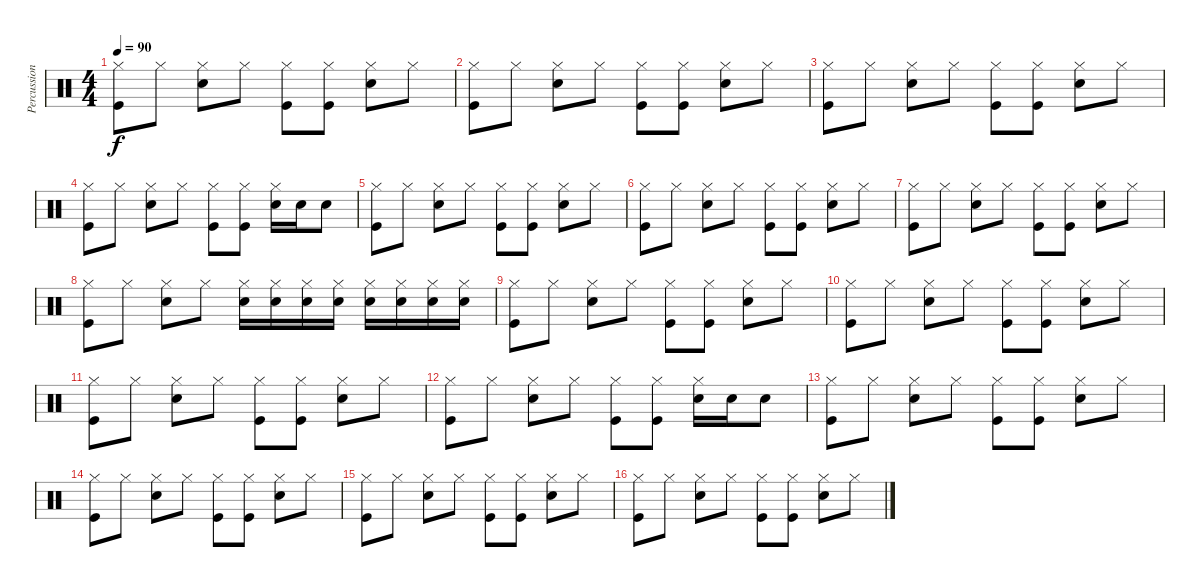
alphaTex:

\track ("Percussion" "Percussion") {instrument percussion}
\staff {score}
\articulation defaults
\ts (4 4)
\tempo 90
\clef neutral
\ks c
("Hi-Hat (closed)" "Kick (hit)").8{dy f} "Hi-Hat (closed)".8 ("Hi-Hat (closed)" "Snare (hit) 2").8 "Hi-Hat (closed)".8 ("Hi-Hat (closed)" "Kick (hit)").8 ("Hi-Hat (closed)" "Kick (hit)").8 ("Hi-Hat (closed)" "Snare (hit) 2").8 "Hi-Hat (closed)".8 |
("Hi-Hat (closed)" "Kick (hit)").8 "Hi-Hat (closed)".8 ("Hi-Hat (closed)" "Snare (hit) 2").8 "Hi-Hat (closed)".8 ("Hi-Hat (closed)" "Kick (hit)").8 ("Hi-Hat (closed)" "Kick (hit)").8 ("Hi-Hat (closed)" "Snare (hit) 2").8 "Hi-Hat (closed)".8 |
("Hi-Hat (closed)" "Kick (hit)").8 "Hi-Hat (closed)".8 ("Hi-Hat (closed)" "Snare (hit) 2").8 "Hi-Hat (closed)".8 ("Hi-Hat (closed)" "Kick (hit)").8 ("Hi-Hat (closed)" "Kick (hit)").8 ("Hi-Hat (closed)" "Snare (hit) 2").8 "Hi-Hat (closed)".8 |
("Hi-Hat (closed)" "Kick (hit)").8 "Hi-Hat (closed)".8 ("Hi-Hat (closed)" "Snare (hit) 2").8 "Hi-Hat (closed)".8 ("Hi-Hat (closed)" "Kick (hit)").8 ("Hi-Hat (closed)" "Kick (hit)").8 ("Hi-Hat (closed)" "Snare (hit) 2").16 "Snare (hit) 2".16 "Snare (hit) 2".8 |
("Hi-Hat (closed)" "Kick (hit)").8 "Hi-Hat (closed)".8 ("Hi-Hat (closed)" "Snare (hit) 2").8 "Hi-Hat (closed)".8 ("Hi-Hat (closed)" "Kick (hit)").8 ("Hi-Hat (closed)" "Kick (hit)").8 ("Hi-Hat (closed)" "Snare (hit) 2").8 "Hi-Hat (closed)".8 |
("Hi-Hat (closed)" "Kick (hit)").8 "Hi-Hat (closed)".8 ("Hi-Hat (closed)" "Snare (hit) 2").8 "Hi-Hat (closed)".8 ("Hi-Hat (closed)" "Kick (hit)").8 ("Hi-Hat (closed)" "Kick (hit)").8 ("Hi-Hat (closed)" "Snare (hit) 2").8 "Hi-Hat (closed)".8 |
("Hi-Hat (closed)" "Kick (hit)").8 "Hi-Hat (closed)".8 ("Hi-Hat (closed)" "Snare (hit) 2").8 "Hi-Hat (closed)".8 ("Hi-Hat (closed)" "Kick (hit)").8 ("Hi-Hat (closed)" "Kick (hit)").8 ("Hi-Hat (closed)" "Snare (hit) 2").8 "Hi-Hat (closed)".8 |
("Hi-Hat (closed)" "Kick (hit)").8 "Hi-Hat (closed)".8 ("Hi-Hat (closed)" "Snare (hit) 2").8 "Hi-Hat (closed)".8 ("Hi-Hat (closed)" "Snare (hit) 2").16 ("Hi-Hat (closed)" "Snare (hit) 2").16 ("Hi-Hat (closed)" "Snare (hit) 2").16 ("Hi-Hat (closed)" "Snare (hit) 2").16 ("Hi-Hat (closed)" "Snare (hit) 2").16 ("Hi-Hat (closed)" "Snare (hit) 2").16 ("Hi-Hat (closed)" "Snare (hit) 2").16 ("Hi-Hat (closed)" "Snare (hit) 2").16 |
("Hi-Hat (closed)" "Kick (hit)").8 "Hi-Hat (closed)".8 ("Hi-Hat (closed)" "Snare (hit) 2").8 "Hi-Hat (closed)".8 ("Hi-Hat (closed)" "Kick (hit)").8 ("Hi-Hat (closed)" "Kick (hit)").8 ("Hi-Hat (closed)" "Snare (hit) 2").8 "Hi-Hat (closed)".8 |
("Hi-Hat (closed)" "Kick (hit)").8 "Hi-Hat (closed)".8 ("Hi-Hat (closed)" "Snare (hit) 2").8 "Hi-Hat (closed)".8 ("Hi-Hat (closed)" "Kick (hit)").8 ("Hi-Hat (closed)" "Kick (hit)").8 ("Hi-Hat (closed)" "Snare (hit) 2").8 "Hi-Hat (closed)".8 |
("Hi-Hat (closed)" "Kick (hit)").8 "Hi-Hat (closed)".8 ("Hi-Hat (closed)" "Snare (hit) 2").8 "Hi-Hat (closed)".8 ("Hi-Hat (closed)" "Kick (hit)").8 ("Hi-Hat (closed)" "Kick (hit)").8 ("Hi-Hat (closed)" "Snare (hit) 2").8 "Hi-Hat (closed)".8 |
("Hi-Hat (closed)" "Kick (hit)").8 "Hi-Hat (closed)".8 ("Hi-Hat (closed)" "Snare (hit) 2").8 "Hi-Hat (closed)".8 ("Hi-Hat (closed)" "Kick (hit)").8 ("Hi-Hat (closed)" "Kick (hit)").8 ("Hi-Hat (closed)" "Snare (hit) 2").16 "Snare (hit) 2".16 "Snare (hit) 2".8 |
("Hi-Hat (closed)" "Kick (hit)").8 "Hi-Hat (closed)".8 ("Hi-Hat (closed)" "Snare (hit) 2").8 "Hi-Hat (closed)".8 ("Hi-Hat (closed)" "Kick (hit)").8 ("Hi-Hat (closed)" "Kick (hit)").8 ("Hi-Hat (closed)" "Snare (hit) 2").8 "Hi-Hat (closed)".8 |
("Hi-Hat (closed)" "Kick (hit)").8 "Hi-Hat (closed)".8 ("Hi-Hat (closed)" "Snare (hit) 2").8 "Hi-Hat (closed)".8 ("Hi-Hat (closed)" "Kick (hit)").8 ("Hi-Hat (closed)" "Kick (hit)").8 ("Hi-Hat (closed)" "Snare (hit) 2").8 "Hi-Hat (closed)".8 |
("Hi-Hat (closed)" "Kick (hit)").8 "Hi-Hat (closed)".8 ("Hi-Hat (closed)" "Snare (hit) 2").8 "Hi-Hat (closed)".8 ("Hi-Hat (closed)" "Kick (hit)").8 ("Hi-Hat (closed)" "Kick (hit)").8 ("Hi-Hat (closed)" "Snare (hit) 2").8 "Hi-Hat (closed)".8 |
("Hi-Hat (closed)" "Kick (hit)").8 "Hi-Hat (closed)".8 ("Hi-Hat (closed)" "Snare (hit) 2").8 "Hi-Hat (closed)".8 ("Hi-Hat (closed)" "Kick (hit)").8 ("Hi-Hat (closed)" "Kick (hit)").8 ("Hi-Hat (closed)" "Snare (hit) 2").8 "Hi-Hat (closed)".8
